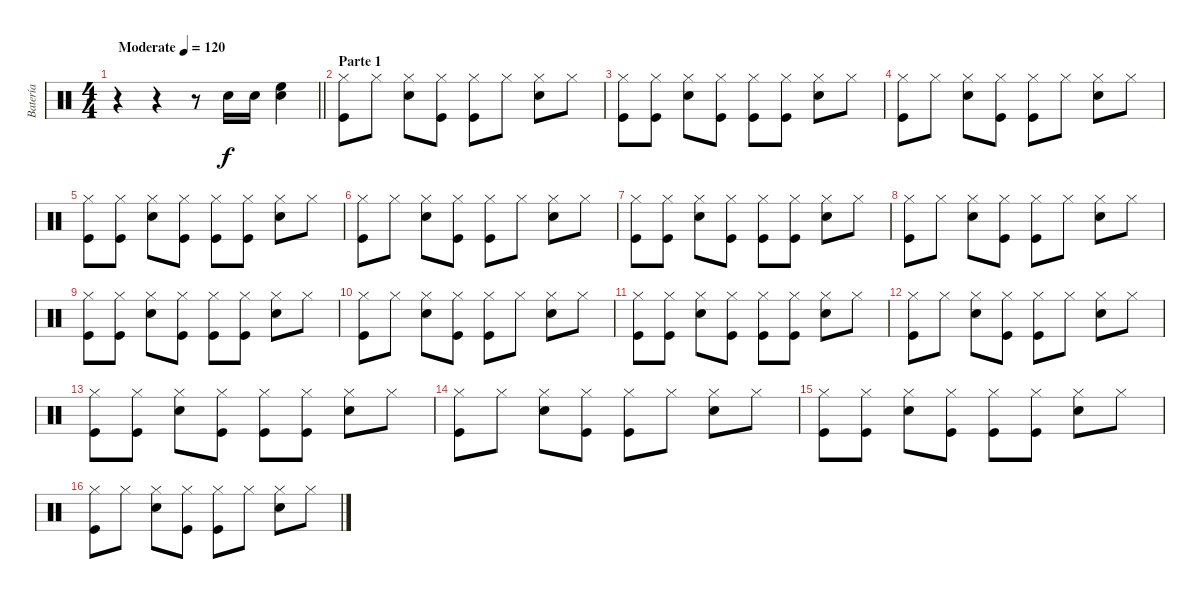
\track ("Batería" "Batería") {instrument percussion}
\staff {score}
\articulation defaults
\ts (4 4)
\tempo (120 "Moderate")
\clef neutral
\barLineRight lightlight
\ks c
r.4{dy f} r.4 r.8 "Snare (hit) 2".16 "Snare (hit) 2".16 ("Snare (hit) 2" "High Floor Tom (hit)").4 |
\section ("" "Parte 1")
("Hi-Hat (closed)" "Kick (hit)").8 "Hi-Hat (closed)".8 ("Hi-Hat (closed)" "Snare (hit) 2").8 ("Hi-Hat (closed)" "Kick (hit)").8 ("Hi-Hat (closed)" "Kick (hit)").8 "Hi-Hat (closed)".8 ("Hi-Hat (closed)" "Snare (hit) 2").8 "Hi-Hat (closed)".8 |
("Hi-Hat (closed)" "Kick (hit)").8 ("Hi-Hat (closed)" "Kick (hit)").8 ("Hi-Hat (closed)" "Snare (hit) 2").8 ("Hi-Hat (closed)" "Kick (hit)").8 ("Hi-Hat (closed)" "Kick (hit)").8 ("Hi-Hat (closed)" "Kick (hit)").8 ("Hi-Hat (closed)" "Snare (hit) 2").8 "Hi-Hat (closed)".8 |
("Hi-Hat (closed)" "Kick (hit)").8 "Hi-Hat (closed)".8 ("Hi-Hat (closed)" "Snare (hit) 2").8 ("Hi-Hat (closed)" "Kick (hit)").8 ("Hi-Hat (closed)" "Kick (hit)").8 "Hi-Hat (closed)".8 ("Hi-Hat (closed)" "Snare (hit) 2").8 "Hi-Hat (closed)".8 |
("Hi-Hat (closed)" "Kick (hit)").8 ("Hi-Hat (closed)" "Kick (hit)").8 ("Hi-Hat (closed)" "Snare (hit) 2").8 ("Hi-Hat (closed)" "Kick (hit)").8 ("Hi-Hat (closed)" "Kick (hit)").8 ("Hi-Hat (closed)" "Kick (hit)").8 ("Hi-Hat (closed)" "Snare (hit) 2").8 "Hi-Hat (closed)".8 |
("Hi-Hat (closed)" "Kick (hit)").8 "Hi-Hat (closed)".8 ("Hi-Hat (closed)" "Snare (hit) 2").8 ("Hi-Hat (closed)" "Kick (hit)").8 ("Hi-Hat (closed)" "Kick (hit)").8 "Hi-Hat (closed)".8 ("Hi-Hat (closed)" "Snare (hit) 2").8 "Hi-Hat (closed)".8 |
("Hi-Hat (closed)" "Kick (hit)").8 ("Hi-Hat (closed)" "Kick (hit)").8 ("Hi-Hat (closed)" "Snare (hit) 2").8 ("Hi-Hat (closed)" "Kick (hit)").8 ("Hi-Hat (closed)" "Kick (hit)").8 ("Hi-Hat (closed)" "Kick (hit)").8 ("Hi-Hat (closed)" "Snare (hit) 2").8 "Hi-Hat (closed)".8 |
("Hi-Hat (closed)" "Kick (hit)").8 "Hi-Hat (closed)".8 ("Hi-Hat (closed)" "Snare (hit) 2").8 ("Hi-Hat (closed)" "Kick (hit)").8 ("Hi-Hat (closed)" "Kick (hit)").8 "Hi-Hat (closed)".8 ("Hi-Hat (closed)" "Snare (hit) 2").8 "Hi-Hat (closed)".8 |
("Hi-Hat (closed)" "Kick (hit)").8 ("Hi-Hat (closed)" "Kick (hit)").8 ("Hi-Hat (closed)" "Snare (hit) 2").8 ("Hi-Hat (closed)" "Kick (hit)").8 ("Hi-Hat (closed)" "Kick (hit)").8 ("Hi-Hat (closed)" "Kick (hit)").8 ("Hi-Hat (closed)" "Snare (hit) 2").8 "Hi-Hat (closed)".8 |
("Hi-Hat (closed)" "Kick (hit)").8 "Hi-Hat (closed)".8 ("Hi-Hat (closed)" "Snare (hit) 2").8 ("Hi-Hat (closed)" "Kick (hit)").8 ("Hi-Hat (closed)" "Kick (hit)").8 "Hi-Hat (closed)".8 ("Hi-Hat (closed)" "Snare (hit) 2").8 "Hi-Hat (closed)".8 |
("Hi-Hat (closed)" "Kick (hit)").8 ("Hi-Hat (closed)" "Kick (hit)").8 ("Hi-Hat (closed)" "Snare (hit) 2").8 ("Hi-Hat (closed)" "Kick (hit)").8 ("Hi-Hat (closed)" "Kick (hit)").8 ("Hi-Hat (closed)" "Kick (hit)").8 ("Hi-Hat (closed)" "Snare (hit) 2").8 "Hi-Hat (closed)".8 |
("Hi-Hat (closed)" "Kick (hit)").8 "Hi-Hat (closed)".8 ("Hi-Hat (closed)" "Snare (hit) 2").8 ("Hi-Hat (closed)" "Kick (hit)").8 ("Hi-Hat (closed)" "Kick (hit)").8 "Hi-Hat (closed)".8 ("Hi-Hat (closed)" "Snare (hit) 2").8 "Hi-Hat (closed)".8 |
("Hi-Hat (closed)" "Kick (hit)").8 ("Hi-Hat (closed)" "Kick (hit)").8 ("Hi-Hat (closed)" "Snare (hit) 2").8 ("Hi-Hat (closed)" "Kick (hit)").8 ("Hi-Hat (closed)" "Kick (hit)").8 ("Hi-Hat (closed)" "Kick (hit)").8 ("Hi-Hat (closed)" "Snare (hit) 2").8 "Hi-Hat (closed)".8 |
("Hi-Hat (closed)" "Kick (hit)").8 "Hi-Hat (closed)".8 ("Hi-Hat (closed)" "Snare (hit) 2").8 ("Hi-Hat (closed)" "Kick (hit)").8 ("Hi-Hat (closed)" "Kick (hit)").8 "Hi-Hat (closed)".8 ("Hi-Hat (closed)" "Snare (hit) 2").8 "Hi-Hat (closed)".8 |
("Hi-Hat (closed)" "Kick (hit)").8 ("Hi-Hat (closed)" "Kick (hit)").8 ("Hi-Hat (closed)" "Snare (hit) 2").8 ("Hi-Hat (closed)" "Kick (hit)").8 ("Hi-Hat (closed)" "Kick (hit)").8 ("Hi-Hat (closed)" "Kick (hit)").8 ("Hi-Hat (closed)" "Snare (hit) 2").8 "Hi-Hat (closed)".8 |
("Hi-Hat (closed)" "Kick (hit)").8 "Hi-Hat (closed)".8 ("Hi-Hat (closed)" "Snare (hit) 2").8 ("Hi-Hat (closed)" "Kick (hit)").8 ("Hi-Hat (closed)" "Kick (hit)").8 "Hi-Hat (closed)".8 ("Hi-Hat (closed)" "Snare (hit) 2").8 "Hi-Hat (closed)".8
